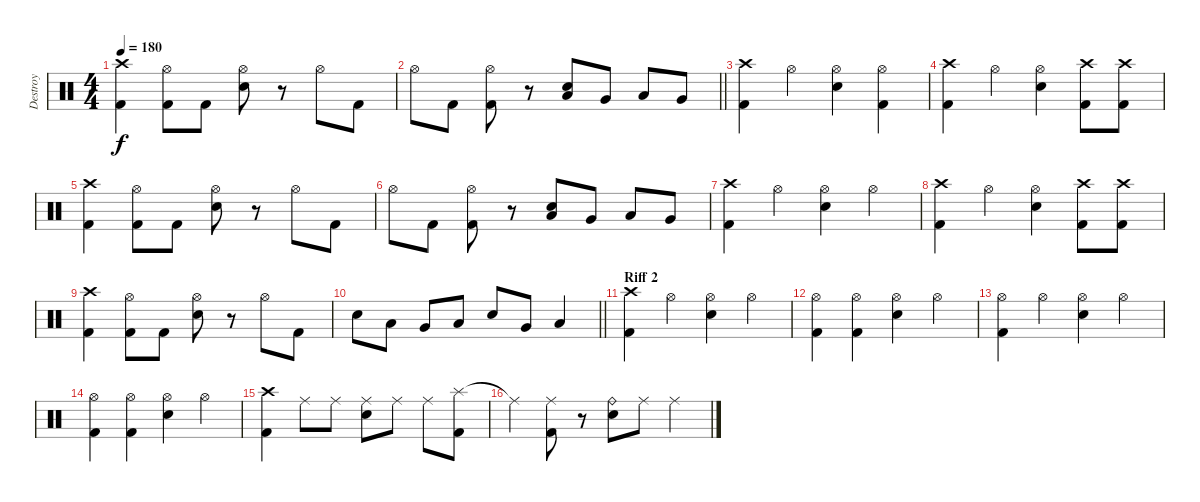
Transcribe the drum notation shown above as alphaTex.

\track ("Destroy" "Destroy") {instrument percussion}
\staff {score}
\articulation defaults
\ts (4 4)
\tempo 180
\clef neutral
\ks c
("Crash high (hit)" "Kick (hit) 2").4{dy f} ("Hi-Hat (open)" "Kick (hit) 2").8 "Kick (hit) 2".8 ("Hi-Hat (open)" "Snare (hit) 2").8 r.8 "Hi-Hat (open)".8 "Kick (hit) 2".8 |
\barLineRight lightlight "Hi-Hat (open)".8 "Kick (hit) 2".8
("Hi-Hat (open)" "Kick (hit) 2").8 r.8 ("Low Tom (hit)" "Snare (hit) 2").8 "Very Low Tom (hit)".8 "Low Floor Tom (hit)".8 "Very Low Tom (hit)".8 |
("Crash high (hit)" "Kick (hit) 2").4 "Hi-Hat (open)".4 ("Hi-Hat (open)" "Snare (hit) 2").4 ("Hi-Hat (open)" "Kick (hit) 2").4 |
("Crash high (hit)" "Kick (hit) 2").4 "Hi-Hat (open)".4 ("Hi-Hat (open)" "Snare (hit) 2").4 ("Crash high (hit)" "Kick (hit) 2").8 ("Crash high (hit)" "Kick (hit) 2").8 |
("Crash high (hit)" "Kick (hit) 2").4 ("Hi-Hat (open)" "Kick (hit) 2").8 "Kick (hit) 2".8 ("Hi-Hat (open)" "Snare (hit) 2").8 r.8 "Hi-Hat (open)".8 "Kick (hit) 2".8 |
"Hi-Hat (open)".8 "Kick (hit) 2".8 ("Hi-Hat (open)" "Kick (hit) 2").8 r.8 ("Low Tom (hit)" "Snare (hit) 2").8 "Very Low Tom (hit)".8 "Low Floor Tom (hit)".8 "Very Low Tom (hit)".8 |
("Crash high (hit)" "Kick (hit) 2").4 "Hi-Hat (open)".4 ("Hi-Hat (open)" "Snare (hit) 2").4 "Hi-Hat (open)".4 |
("Crash high (hit)" "Kick (hit) 2").4 "Hi-Hat (open)".4 ("Hi-Hat (open)" "Snare (hit) 2").4 ("Crash high (hit)" "Kick (hit) 2").8 ("Crash high (hit)" "Kick (hit) 2").8 |
("Crash high (hit)" "Kick (hit) 2").4 ("Hi-Hat (open)" "Kick (hit) 2").8 "Kick (hit) 2".8 ("Hi-Hat (open)" "Snare (hit) 2").8 r.8 "Hi-Hat (open)".8 "Kick (hit) 2".8 |
\barLineRight lightlight "Snare (hit) 2".8 "Low Tom (hit)".8 "Very Low Tom (hit)".8 "Low Floor Tom (hit)".8 "Snare (hit) 2".8 "Very Low Tom (hit)".8 "Low Floor Tom (hit)".4
|
\section ("" "Riff 2")
("Crash high (hit)" "Kick (hit) 2").4 "Hi-Hat (open)".4 ("Hi-Hat (open)" "Snare (hit) 2").4 "Hi-Hat (open)".4 |
("Hi-Hat (open)" "Kick (hit) 2").4 ("Hi-Hat (open)" "Kick (hit) 2").4 ("Hi-Hat (open)" "Snare (hit) 2").4 "Hi-Hat (open)".4 |
("Hi-Hat (open)" "Kick (hit) 2").4 "Hi-Hat (open)".4 ("Hi-Hat (open)" "Snare (hit) 2").4 "Hi-Hat (open)".4 |
("Hi-Hat (open)" "Kick (hit) 2").4 ("Hi-Hat (open)" "Kick (hit) 2").4 ("Hi-Hat (open)" "Snare (hit) 2").4 "Hi-Hat (open)".4 |
("Crash high (hit)" "Kick (hit) 2").4 "Ride (middle)".8 "Ride (middle)".8 ("Ride (middle)" "Snare (hit) 2").8 "Ride (middle)".8 "Ride (middle)".8 ("Splash (hit)" "Kick (hit) 2").8 |
"Ride (middle)"{t}.4 ("Ride (middle)" "Kick (hit) 2").8 r.8 ("Ride (bell)" "Snare (hit) 2").8 "Ride (middle)".8 "Ride (middle)".4
